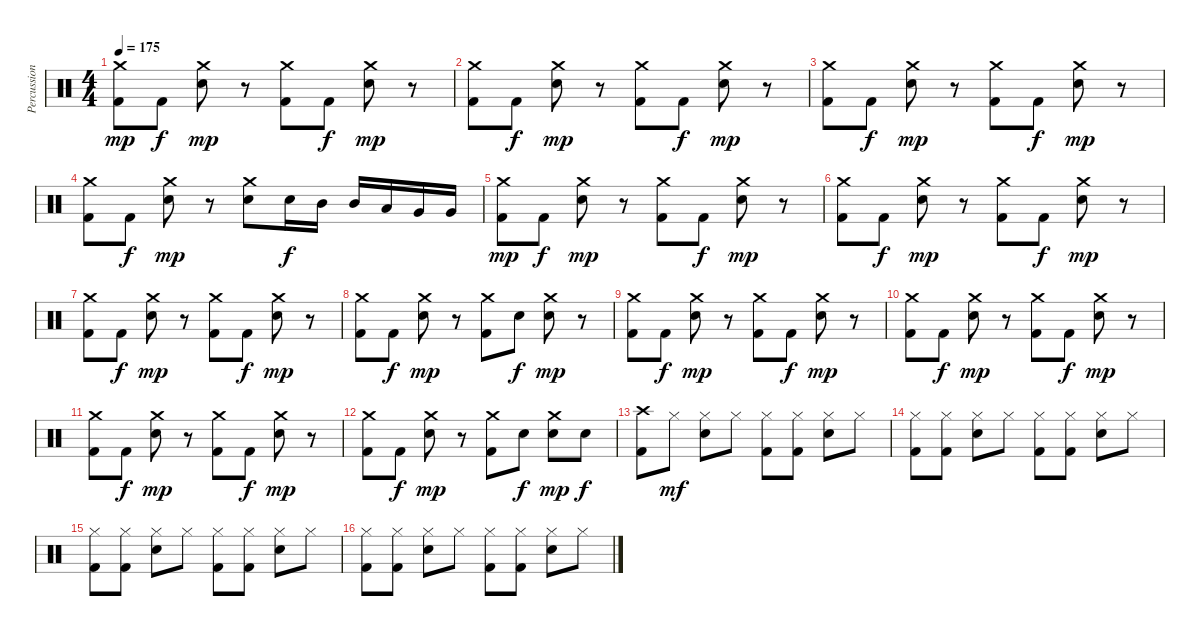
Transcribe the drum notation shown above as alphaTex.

\track ("Percussions" "Percussion") {instrument percussion}
\staff {score}
\articulation defaults
\ts (4 4)
\tempo 175
\clef neutral
\ks c
("Crash medium (hit)" "Kick (hit) 2").8{dy mp} "Kick (hit) 2".8{dy f} ("Crash medium (hit)" "Snare (hit) 2").8{dy mp} r.8 ("Crash medium (hit)" "Kick (hit) 2").8 "Kick (hit) 2".8{dy f} ("Crash medium (hit)" "Snare (hit) 2").8{dy mp} r.8 |
("Crash medium (hit)" "Kick (hit) 2").8 "Kick (hit) 2".8{dy f} ("Crash medium (hit)" "Snare (hit) 2").8{dy mp} r.8 ("Crash medium (hit)" "Kick (hit) 2").8 "Kick (hit) 2".8{dy f} ("Crash medium (hit)" "Snare (hit) 2").8{dy mp} r.8 |
("Crash medium (hit)" "Kick (hit) 2").8 "Kick (hit) 2".8{dy f} ("Crash medium (hit)" "Snare (hit) 2").8{dy mp} r.8 ("Crash medium (hit)" "Kick (hit) 2").8 "Kick (hit) 2".8{dy f} ("Crash medium (hit)" "Snare (hit) 2").8{dy mp} r.8 |
("Crash medium (hit)" "Kick (hit) 2").8 "Kick (hit) 2".8{dy f} ("Crash medium (hit)" "Snare (hit) 2").8{dy mp} r.8 ("Crash medium (hit)" "Snare (hit) 2").8 "Snare (hit) 2".16{dy f} "Mid Tom (hit)".16 "Mid Tom (hit)".16 "Low Tom (hit)".16 "Very Low Tom (hit)".16 "Very Low Tom (hit)".16 |
("Crash medium (hit)" "Kick (hit) 2").8{dy mp} "Kick (hit) 2".8{dy f} ("Crash medium (hit)" "Snare (hit) 2").8{dy mp} r.8 ("Crash medium (hit)" "Kick (hit) 2").8 "Kick (hit) 2".8{dy f} ("Crash medium (hit)" "Snare (hit) 2").8{dy mp} r.8 |
("Crash medium (hit)" "Kick (hit) 2").8 "Kick (hit) 2".8{dy f} ("Crash medium (hit)" "Snare (hit) 2").8{dy mp} r.8 ("Crash medium (hit)" "Kick (hit) 2").8 "Kick (hit) 2".8{dy f} ("Crash medium (hit)" "Snare (hit) 2").8{dy mp} r.8 |
("Crash medium (hit)" "Kick (hit) 2").8 "Kick (hit) 2".8{dy f} ("Crash medium (hit)" "Snare (hit) 2").8{dy mp} r.8 ("Crash medium (hit)" "Kick (hit) 2").8 "Kick (hit) 2".8{dy f} ("Crash medium (hit)" "Snare (hit) 2").8{dy mp} r.8 |
("Crash medium (hit)" "Kick (hit) 2").8 "Kick (hit) 2".8{dy f} ("Crash medium (hit)" "Snare (hit) 2").8{dy mp} r.8 ("Crash medium (hit)" "Kick (hit) 2").8 "Snare (hit) 2".8{dy f} ("Crash medium (hit)" "Snare (hit) 2").8{dy mp} r.8 |
("Crash medium (hit)" "Kick (hit) 2").8 "Kick (hit) 2".8{dy f} ("Crash medium (hit)" "Snare (hit) 2").8{dy mp} r.8 ("Crash medium (hit)" "Kick (hit) 2").8 "Kick (hit) 2".8{dy f} ("Crash medium (hit)" "Snare (hit) 2").8{dy mp} r.8 |
("Crash medium (hit)" "Kick (hit) 2").8 "Kick (hit) 2".8{dy f} ("Crash medium (hit)" "Snare (hit) 2").8{dy mp} r.8 ("Crash medium (hit)" "Kick (hit) 2").8 "Kick (hit) 2".8{dy f} ("Crash medium (hit)" "Snare (hit) 2").8{dy mp} r.8 |
("Crash medium (hit)" "Kick (hit) 2").8 "Kick (hit) 2".8{dy f} ("Crash medium (hit)" "Snare (hit) 2").8{dy mp} r.8 ("Crash medium (hit)" "Kick (hit) 2").8 "Kick (hit) 2".8{dy f} ("Crash medium (hit)" "Snare (hit) 2").8{dy mp} r.8 |
("Crash medium (hit)" "Kick (hit) 2").8 "Kick (hit) 2".8{dy f} ("Crash medium (hit)" "Snare (hit) 2").8{dy mp} r.8 ("Crash medium (hit)" "Kick (hit) 2").8 "Snare (hit) 2".8{dy f} ("Crash medium (hit)" "Snare (hit) 2").8{dy mp} "Snare (hit) 2".8{dy f} |
("Crash high (hit)" "Kick (hit) 2").8 "Hi-Hat (closed)".8{dy mf} ("Hi-Hat (closed)" "Snare (hit) 2").8 "Hi-Hat (closed)".8 ("Hi-Hat (closed)" "Kick (hit) 2").8 ("Hi-Hat (closed)" "Kick (hit) 2").8 ("Hi-Hat (closed)" "Snare (hit) 2").8 "Hi-Hat (closed)".8 |
("Hi-Hat (closed)" "Kick (hit) 2").8 ("Hi-Hat (closed)" "Kick (hit) 2").8 ("Hi-Hat (closed)" "Snare (hit) 2").8 "Hi-Hat (closed)".8 ("Hi-Hat (closed)" "Kick (hit) 2").8 ("Hi-Hat (closed)" "Kick (hit) 2").8 ("Hi-Hat (closed)" "Snare (hit) 2").8 "Hi-Hat (closed)".8 |
("Hi-Hat (closed)" "Kick (hit) 2").8 ("Hi-Hat (closed)" "Kick (hit) 2").8 ("Hi-Hat (closed)" "Snare (hit) 2").8 "Hi-Hat (closed)".8 ("Hi-Hat (closed)" "Kick (hit) 2").8 ("Hi-Hat (closed)" "Kick (hit) 2").8 ("Hi-Hat (closed)" "Snare (hit) 2").8 "Hi-Hat (closed)".8 |
("Hi-Hat (closed)" "Kick (hit) 2").8 ("Hi-Hat (closed)" "Kick (hit) 2").8 ("Hi-Hat (closed)" "Snare (hit) 2").8 "Hi-Hat (closed)".8 ("Hi-Hat (closed)" "Kick (hit) 2").8 ("Hi-Hat (closed)" "Kick (hit) 2").8 ("Hi-Hat (closed)" "Snare (hit) 2").8 "Hi-Hat (closed)".8
